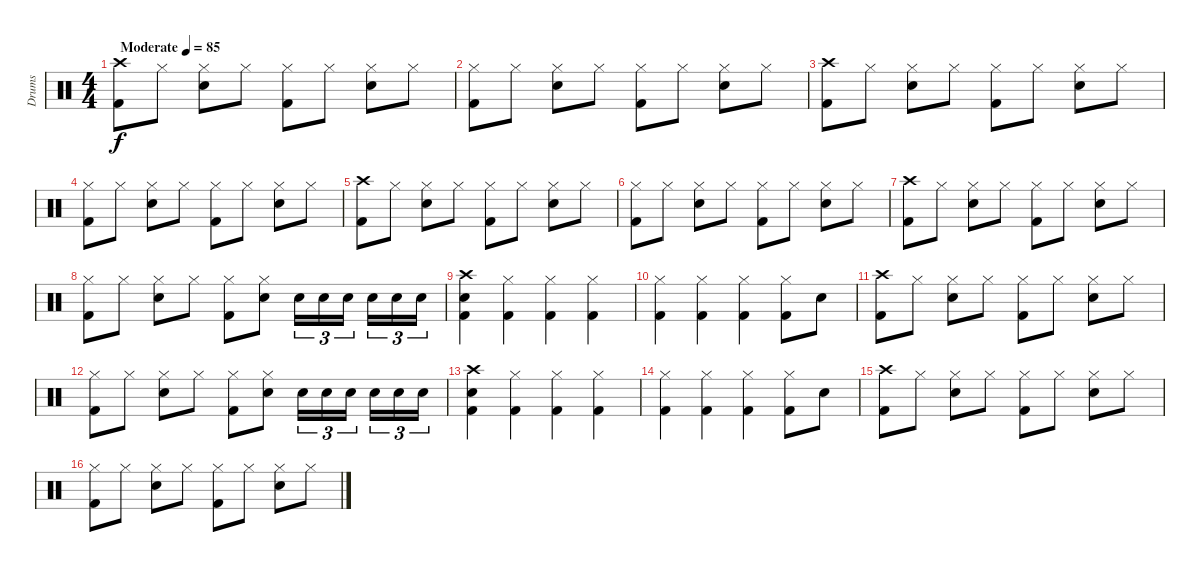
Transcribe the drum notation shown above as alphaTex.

\track ("Drums" "Drums") {instrument percussion}
\staff {score}
\articulation defaults
\ts (4 4)
\tempo (85 "Moderate")
\clef neutral
\ks c
("Crash high (hit)" "Kick (hit) 2").8{dy f} "Hi-Hat (closed)".8 ("Hi-Hat (closed)" "Snare (hit) 2").8 "Hi-Hat (closed)".8 ("Hi-Hat (closed)" "Kick (hit) 2").8 "Hi-Hat (closed)".8 ("Hi-Hat (closed)" "Snare (hit) 2").8 "Hi-Hat (closed)".8 |
("Hi-Hat (closed)" "Kick (hit) 2").8 "Hi-Hat (closed)".8 ("Hi-Hat (closed)" "Snare (hit) 2").8 "Hi-Hat (closed)".8 ("Hi-Hat (closed)" "Kick (hit) 2").8 "Hi-Hat (closed)".8 ("Hi-Hat (closed)" "Snare (hit) 2").8 "Hi-Hat (closed)".8 |
("Crash high (hit)" "Kick (hit) 2").8 "Hi-Hat (closed)".8 ("Hi-Hat (closed)" "Snare (hit) 2").8 "Hi-Hat (closed)".8 ("Hi-Hat (closed)" "Kick (hit) 2").8 "Hi-Hat (closed)".8 ("Hi-Hat (closed)" "Snare (hit) 2").8 "Hi-Hat (closed)".8 |
("Hi-Hat (closed)" "Kick (hit) 2").8 "Hi-Hat (closed)".8 ("Hi-Hat (closed)" "Snare (hit) 2").8 "Hi-Hat (closed)".8 ("Hi-Hat (closed)" "Kick (hit) 2").8 "Hi-Hat (closed)".8 ("Hi-Hat (closed)" "Snare (hit) 2").8 "Hi-Hat (closed)".8 |
("Crash high (hit)" "Kick (hit) 2").8 "Hi-Hat (closed)".8 ("Hi-Hat (closed)" "Snare (hit) 2").8 "Hi-Hat (closed)".8 ("Hi-Hat (closed)" "Kick (hit) 2").8 "Hi-Hat (closed)".8 ("Hi-Hat (closed)" "Snare (hit) 2").8 "Hi-Hat (closed)".8 |
("Hi-Hat (closed)" "Kick (hit) 2").8 "Hi-Hat (closed)".8 ("Hi-Hat (closed)" "Snare (hit) 2").8 "Hi-Hat (closed)".8 ("Hi-Hat (closed)" "Kick (hit) 2").8 "Hi-Hat (closed)".8 ("Hi-Hat (closed)" "Snare (hit) 2").8 "Hi-Hat (closed)".8 |
("Crash high (hit)" "Kick (hit) 2").8 "Hi-Hat (closed)".8 ("Hi-Hat (closed)" "Snare (hit) 2").8 "Hi-Hat (closed)".8 ("Hi-Hat (closed)" "Kick (hit) 2").8 "Hi-Hat (closed)".8 ("Hi-Hat (closed)" "Snare (hit) 2").8 "Hi-Hat (closed)".8 |
("Hi-Hat (closed)" "Kick (hit) 2").8 "Hi-Hat (closed)".8 ("Hi-Hat (closed)" "Snare (hit) 2").8 "Hi-Hat (closed)".8 ("Hi-Hat (closed)" "Kick (hit) 2").8 ("Hi-Hat (closed)" "Snare (hit) 2").8 "Snare (hit) 2".16{tu (3 2)} "Snare (hit) 2".16{tu (3 2)} "Snare (hit) 2".16{tu (3 2) beam splitsecondary} "Snare (hit) 2".16{tu (3 2)} "Snare (hit) 2".16{tu (3 2)} "Snare (hit) 2".16{tu (3 2)} |
("Crash high (hit)" "Snare (hit) 2" "Kick (hit) 2").4 ("Hi-Hat (closed)" "Kick (hit) 2").4 ("Hi-Hat (closed)" "Kick (hit) 2").4 ("Hi-Hat (closed)" "Kick (hit) 2").4 |
("Hi-Hat (closed)" "Kick (hit) 2").4 ("Hi-Hat (closed)" "Kick (hit) 2").4 ("Hi-Hat (closed)" "Kick (hit) 2").4 ("Hi-Hat (closed)" "Kick (hit) 2").8 "Snare (hit) 2".8 |
("Crash high (hit)" "Kick (hit) 2").8 "Hi-Hat (closed)".8 ("Hi-Hat (closed)" "Snare (hit) 2").8 "Hi-Hat (closed)".8 ("Hi-Hat (closed)" "Kick (hit) 2").8 "Hi-Hat (closed)".8 ("Hi-Hat (closed)" "Snare (hit) 2").8 "Hi-Hat (closed)".8 |
("Hi-Hat (closed)" "Kick (hit) 2").8 "Hi-Hat (closed)".8 ("Hi-Hat (closed)" "Snare (hit) 2").8 "Hi-Hat (closed)".8 ("Hi-Hat (closed)" "Kick (hit) 2").8 ("Hi-Hat (closed)" "Snare (hit) 2").8 "Snare (hit) 2".16{tu (3 2)} "Snare (hit) 2".16{tu (3 2)} "Snare (hit) 2".16{tu (3 2) beam splitsecondary} "Snare (hit) 2".16{tu (3 2)} "Snare (hit) 2".16{tu (3 2)} "Snare (hit) 2".16{tu (3 2)} |
("Crash high (hit)" "Snare (hit) 2" "Kick (hit) 2").4 ("Hi-Hat (closed)" "Kick (hit) 2").4 ("Hi-Hat (closed)" "Kick (hit) 2").4 ("Hi-Hat (closed)" "Kick (hit) 2").4 |
("Hi-Hat (closed)" "Kick (hit) 2").4 ("Hi-Hat (closed)" "Kick (hit) 2").4 ("Hi-Hat (closed)" "Kick (hit) 2").4 ("Hi-Hat (closed)" "Kick (hit) 2").8 "Snare (hit) 2".8 |
("Crash high (hit)" "Kick (hit) 2").8 "Hi-Hat (closed)".8 ("Hi-Hat (closed)" "Snare (hit) 2").8 "Hi-Hat (closed)".8 ("Hi-Hat (closed)" "Kick (hit) 2").8 "Hi-Hat (closed)".8 ("Hi-Hat (closed)" "Snare (hit) 2").8 "Hi-Hat (closed)".8 |
("Hi-Hat (closed)" "Kick (hit) 2").8 "Hi-Hat (closed)".8 ("Hi-Hat (closed)" "Snare (hit) 2").8 "Hi-Hat (closed)".8 ("Hi-Hat (closed)" "Kick (hit) 2").8 "Hi-Hat (closed)".8 ("Hi-Hat (closed)" "Snare (hit) 2").8 "Hi-Hat (closed)".8
